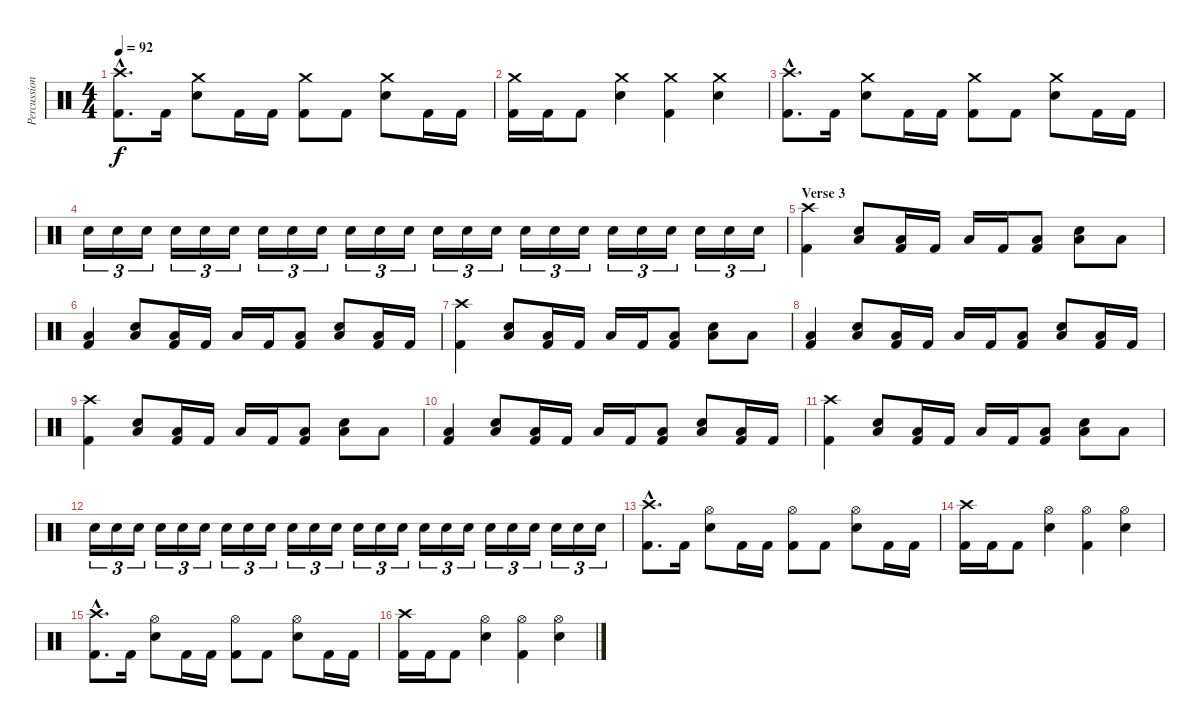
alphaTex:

\track ("Percussion" "Percussion") {instrument percussion}
\staff {score}
\articulation defaults
\ts (4 4)
\tempo 92
\clef neutral
\ks c
("Crash high (hit)"{hac} "Kick (hit) 2"{hac}).8{d dy f} "Kick (hit) 2".16 ("Crash medium (hit)" "Electric Snare (hit)").8 "Kick (hit) 2".16 "Kick (hit) 2".16 ("Crash medium (hit)" "Kick (hit) 2").8 "Kick (hit) 2".8 ("Crash medium (hit)" "Electric Snare (hit)").8 "Kick (hit) 2".16 "Kick (hit) 2".16 |
("Crash medium (hit)" "Kick (hit) 2").16 "Kick (hit) 2".16 "Kick (hit) 2".8 ("Crash medium (hit)" "Electric Snare (hit)").4 ("Crash medium (hit)" "Kick (hit) 2").4 ("Crash medium (hit)" "Electric Snare (hit)").4 |
("Crash high (hit)"{hac} "Kick (hit) 2"{hac}).8{d} "Kick (hit) 2".16 ("Crash medium (hit)" "Electric Snare (hit)").8 "Kick (hit) 2".16 "Kick (hit) 2".16 ("Crash medium (hit)" "Kick (hit) 2").8 "Kick (hit) 2".8 ("Crash medium (hit)" "Electric Snare (hit)").8 "Kick (hit) 2".16 "Kick (hit) 2".16 |
"Electric Snare (hit)".16{tu (3 2)} "Electric Snare (hit)".16{tu (3 2)} "Electric Snare (hit)".16{tu (3 2)} "Electric Snare (hit)".16{tu (3 2)} "Electric Snare (hit)".16{tu (3 2)} "Electric Snare (hit)".16{tu (3 2)} "Electric Snare (hit)".16{tu (3 2)} "Electric Snare (hit)".16{tu (3 2)} "Electric Snare (hit)".16{tu (3 2)} "Electric Snare (hit)".16{tu (3 2)} "Electric Snare (hit)".16{tu (3 2)} "Electric Snare (hit)".16{tu (3 2)} "Electric Snare (hit)".16{tu (3 2)} "Electric Snare (hit)".16{tu (3 2)} "Electric Snare (hit)".16{tu (3 2)} "Electric Snare (hit)".16{tu (3 2)} "Electric Snare (hit)".16{tu (3 2)} "Electric Snare (hit)".16{tu (3 2)} "Electric Snare (hit)".16{tu (3 2)} "Electric Snare (hit)".16{tu (3 2)} "Electric Snare (hit)".16{tu (3 2)} "Electric Snare (hit)".16{tu (3 2)} "Electric Snare (hit)".16{tu (3 2)} "Electric Snare (hit)".16{tu (3 2)} |
\section ("" "Verse 3")
("Crash high (hit)" "Kick (hit) 2").4 ("Low Tom (hit)" "Electric Snare (hit)").8 ("Low Tom (hit)" "Kick (hit) 2").16 "Kick (hit) 2".16 "Low Tom (hit)".16 "Kick (hit) 2".16 ("Low Tom (hit)" "Kick (hit) 2").8 ("Low Tom (hit)" "Electric Snare (hit)").8 "Low Tom (hit)".8 |
("Low Tom (hit)" "Kick (hit) 2").4 ("Low Tom (hit)" "Electric Snare (hit)").8 ("Low Tom (hit)" "Kick (hit) 2").16 "Kick (hit) 2".16 "Low Tom (hit)".16 "Kick (hit) 2".16 ("Low Tom (hit)" "Kick (hit) 2").8 ("Low Tom (hit)" "Electric Snare (hit)").8 ("Low Tom (hit)" "Kick (hit) 2").16 "Kick (hit) 2".16 |
("Crash high (hit)" "Kick (hit) 2").4 ("Low Tom (hit)" "Electric Snare (hit)").8 ("Low Tom (hit)" "Kick (hit) 2").16 "Kick (hit) 2".16 "Low Tom (hit)".16 "Kick (hit) 2".16 ("Low Tom (hit)" "Kick (hit) 2").8 ("Low Tom (hit)" "Electric Snare (hit)").8 "Low Tom (hit)".8 |
("Low Tom (hit)" "Kick (hit) 2").4 ("Low Tom (hit)" "Electric Snare (hit)").8 ("Low Tom (hit)" "Kick (hit) 2").16 "Kick (hit) 2".16 "Low Tom (hit)".16 "Kick (hit) 2".16 ("Low Tom (hit)" "Kick (hit) 2").8 ("Low Tom (hit)" "Electric Snare (hit)").8 ("Low Tom (hit)" "Kick (hit) 2").16 "Kick (hit) 2".16 |
("Crash high (hit)" "Kick (hit) 2").4 ("Low Tom (hit)" "Electric Snare (hit)").8 ("Low Tom (hit)" "Kick (hit) 2").16 "Kick (hit) 2".16 "Low Tom (hit)".16 "Kick (hit) 2".16 ("Low Tom (hit)" "Kick (hit) 2").8 ("Low Tom (hit)" "Electric Snare (hit)").8 "Low Tom (hit)".8 |
("Low Tom (hit)" "Kick (hit) 2").4 ("Low Tom (hit)" "Electric Snare (hit)").8 ("Low Tom (hit)" "Kick (hit) 2").16 "Kick (hit) 2".16 "Low Tom (hit)".16 "Kick (hit) 2".16 ("Low Tom (hit)" "Kick (hit) 2").8 ("Low Tom (hit)" "Electric Snare (hit)").8 ("Low Tom (hit)" "Kick (hit) 2").16 "Kick (hit) 2".16 |
("Crash high (hit)" "Kick (hit) 2").4 ("Low Tom (hit)" "Electric Snare (hit)").8 ("Low Tom (hit)" "Kick (hit) 2").16 "Kick (hit) 2".16 "Low Tom (hit)".16 "Kick (hit) 2".16 ("Low Tom (hit)" "Kick (hit) 2").8 ("Low Tom (hit)" "Electric Snare (hit)").8 "Low Tom (hit)".8 |
"Electric Snare (hit)".16{tu (3 2)} "Electric Snare (hit)".16{tu (3 2)} "Electric Snare (hit)".16{tu (3 2)} "Electric Snare (hit)".16{tu (3 2)} "Electric Snare (hit)".16{tu (3 2)} "Electric Snare (hit)".16{tu (3 2)} "Electric Snare (hit)".16{tu (3 2)} "Electric Snare (hit)".16{tu (3 2)} "Electric Snare (hit)".16{tu (3 2)} "Electric Snare (hit)".16{tu (3 2)} "Electric Snare (hit)".16{tu (3 2)} "Electric Snare (hit)".16{tu (3 2)} "Electric Snare (hit)".16{tu (3 2)} "Electric Snare (hit)".16{tu (3 2)} "Electric Snare (hit)".16{tu (3 2)} "Electric Snare (hit)".16{tu (3 2)} "Electric Snare (hit)".16{tu (3 2)} "Electric Snare (hit)".16{tu (3 2)} "Electric Snare (hit)".16{tu (3 2)} "Electric Snare (hit)".16{tu (3 2)} "Electric Snare (hit)".16{tu (3 2)} "Electric Snare (hit)".16{tu (3 2)} "Electric Snare (hit)".16{tu (3 2)} "Electric Snare (hit)".16{tu (3 2)} |
("Crash high (hit)"{hac} "Kick (hit) 2"{hac}).8{d} "Kick (hit) 2".16 ("Hi-Hat (open)" "Electric Snare (hit)").8 "Kick (hit) 2".16 "Kick (hit) 2".16 ("Hi-Hat (open)" "Kick (hit) 2").8 "Kick (hit) 2".8 ("Hi-Hat (open)" "Electric Snare (hit)").8 "Kick (hit) 2".16 "Kick (hit) 2".16 |
("Crash high (hit)" "Kick (hit) 2").16 "Kick (hit) 2".16 "Kick (hit) 2".8 ("Hi-Hat (open)" "Electric Snare (hit)").4 ("Hi-Hat (open)" "Kick (hit) 2").4 ("Hi-Hat (open)" "Electric Snare (hit)").4 |
("Crash high (hit)"{hac} "Kick (hit) 2"{hac}).8{d} "Kick (hit) 2".16 ("Hi-Hat (open)" "Electric Snare (hit)").8 "Kick (hit) 2".16 "Kick (hit) 2".16 ("Hi-Hat (open)" "Kick (hit) 2").8 "Kick (hit) 2".8 ("Hi-Hat (open)" "Electric Snare (hit)").8 "Kick (hit) 2".16 "Kick (hit) 2".16 |
("Crash high (hit)" "Kick (hit) 2").16 "Kick (hit) 2".16 "Kick (hit) 2".8 ("Hi-Hat (open)" "Electric Snare (hit)").4 ("Hi-Hat (open)" "Kick (hit) 2").4 ("Hi-Hat (open)" "Electric Snare (hit)").4
